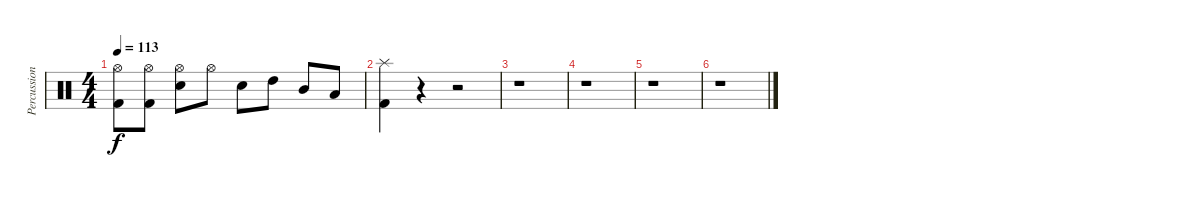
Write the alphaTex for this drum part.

\track ("Percussion" "Percussion") {instrument percussion}
\staff {score}
\articulation defaults
\ts (4 4)
\tempo 113
\clef neutral
\ks c
("Hi-Hat (open)" "Kick (hit) 2").8{dy f} ("Hi-Hat (open)" "Kick (hit) 2").8 ("Hi-Hat (open)" "Snare (hit) 2").8 "Hi-Hat (open)".8 "Snare (hit) 2".8 "High Tom (hit)".8 "Mid Tom (hit)".8 "Low Tom (hit)".8 |
("Splash (hit)" "Kick (hit) 2").4 r.4 r.2 |
r.1 |
r.1 |
r.1 |
r.1
